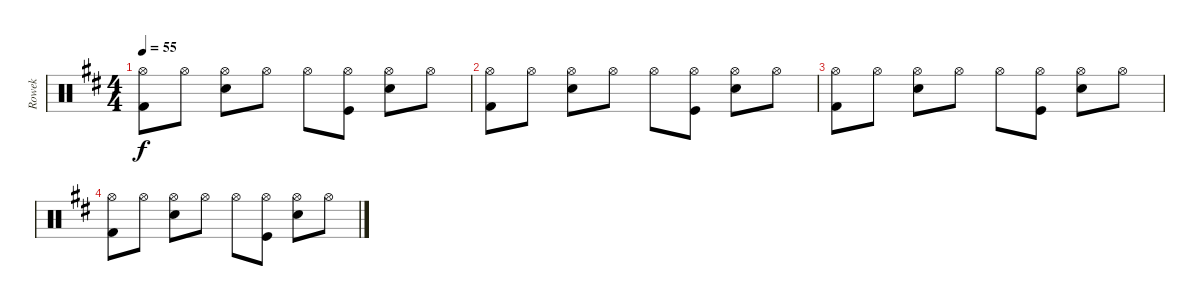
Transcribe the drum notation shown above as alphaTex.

\track ("Rowek" "Rowek") {instrument percussion}
\staff {score}
\articulation defaults
\ts (4 4)
\tempo 55
\clef neutral
\ks d
("Hi-Hat (open)" "Kick (hit) 2").8{dy f volume 0} "Hi-Hat (open)".8 ("Hi-Hat (open)" "Electric Snare (hit)").8 "Hi-Hat (open)".8 "Hi-Hat (open)".8 ("Hi-Hat (open)" "Kick (hit)").8 ("Hi-Hat (open)" "Snare (hit) 2").8 "Hi-Hat (open)".8 |
("Hi-Hat (open)" "Kick (hit) 2").8 "Hi-Hat (open)".8 ("Hi-Hat (open)" "Electric Snare (hit)").8 "Hi-Hat (open)".8 "Hi-Hat (open)".8 ("Hi-Hat (open)" "Kick (hit)").8 ("Hi-Hat (open)" "Snare (hit) 2").8 "Hi-Hat (open)".8 |
("Hi-Hat (open)" "Kick (hit) 2").8 "Hi-Hat (open)".8 ("Hi-Hat (open)" "Electric Snare (hit)").8 "Hi-Hat (open)".8 "Hi-Hat (open)".8 ("Hi-Hat (open)" "Kick (hit)").8 ("Hi-Hat (open)" "Snare (hit) 2").8 "Hi-Hat (open)".8 |
("Hi-Hat (open)" "Kick (hit) 2").8 "Hi-Hat (open)".8 ("Hi-Hat (open)" "Electric Snare (hit)").8 "Hi-Hat (open)".8 "Hi-Hat (open)".8 ("Hi-Hat (open)" "Kick (hit)").8 ("Hi-Hat (open)" "Snare (hit) 2").8 "Hi-Hat (open)".8
